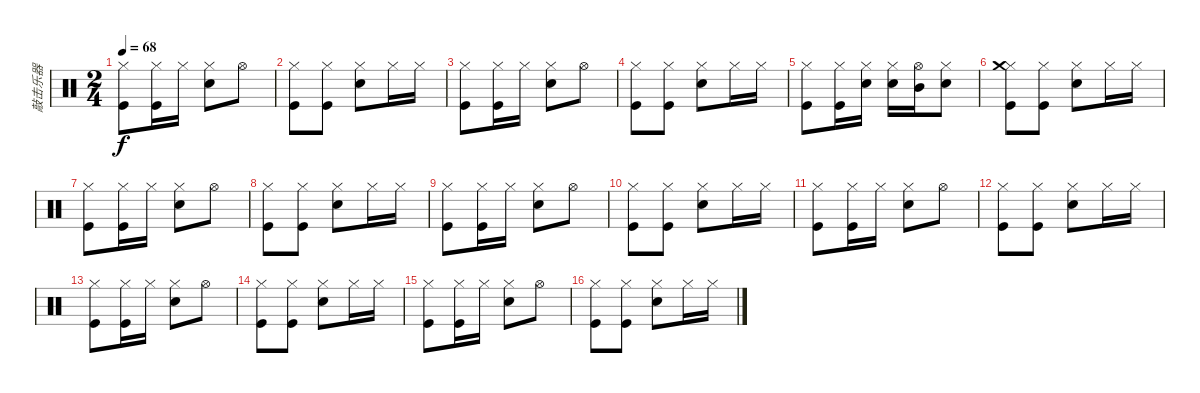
\track ("敲击乐器" "敲击乐器") {instrument percussion}
\staff {score}
\articulation defaults
\ts (2 4)
\tempo 68
\clef neutral
\ks c
("Hi-Hat (closed)" "Kick (hit)").8{dy f} ("Hi-Hat (closed)" "Kick (hit)").16 "Hi-Hat (closed)".16 ("Hi-Hat (closed)" "Snare (hit) 2").8 "Hi-Hat (open)".8 |
("Hi-Hat (closed)" "Kick (hit)").8 ("Hi-Hat (closed)" "Kick (hit)").8 ("Hi-Hat (closed)" "Snare (hit) 2").8 "Hi-Hat (closed)".16 "Hi-Hat (closed)".16 |
("Hi-Hat (closed)" "Kick (hit)").8 ("Hi-Hat (closed)" "Kick (hit)").16 "Hi-Hat (closed)".16 ("Hi-Hat (closed)" "Snare (hit) 2").8 "Hi-Hat (open)".8 |
("Hi-Hat (closed)" "Kick (hit)").8 ("Hi-Hat (closed)" "Kick (hit)").8 ("Hi-Hat (closed)" "Snare (hit) 2").8 "Hi-Hat (closed)".16 "Hi-Hat (closed)".16 |
("Hi-Hat (closed)" "Kick (hit)").8 ("Hi-Hat (closed)" "Kick (hit)").16 ("Hi-Hat (closed)" "Snare (hit) 2").16 ("Hi-Hat (closed)" "Snare (hit) 2").16 ("Hi-Hat (open)" "Mid Tom (hit)").16 ("Hi-Hat (closed)" "Snare (hit) 2").8 |
("Hi-Hat (closed)" "Crash medium (hit)" "Kick (hit)").8 ("Hi-Hat (closed)" "Kick (hit)").8 ("Hi-Hat (closed)" "Snare (hit) 2").8 "Hi-Hat (closed)".16 "Hi-Hat (closed)".16 |
("Hi-Hat (closed)" "Kick (hit)").8 ("Hi-Hat (closed)" "Kick (hit)").16 "Hi-Hat (closed)".16 ("Hi-Hat (closed)" "Snare (hit) 2").8 "Hi-Hat (open)".8 |
("Hi-Hat (closed)" "Kick (hit)").8 ("Hi-Hat (closed)" "Kick (hit)").8 ("Hi-Hat (closed)" "Snare (hit) 2").8 "Hi-Hat (closed)".16 "Hi-Hat (closed)".16 |
("Hi-Hat (closed)" "Kick (hit)").8 ("Hi-Hat (closed)" "Kick (hit)").16 "Hi-Hat (closed)".16 ("Hi-Hat (closed)" "Snare (hit) 2").8 "Hi-Hat (open)".8 |
("Hi-Hat (closed)" "Kick (hit)").8 ("Hi-Hat (closed)" "Kick (hit)").8 ("Hi-Hat (closed)" "Snare (hit) 2").8 "Hi-Hat (closed)".16 "Hi-Hat (closed)".16 |
("Hi-Hat (closed)" "Kick (hit)").8 ("Hi-Hat (closed)" "Kick (hit)").16 "Hi-Hat (closed)".16 ("Hi-Hat (closed)" "Snare (hit) 2").8 "Hi-Hat (open)".8 |
("Hi-Hat (closed)" "Kick (hit)").8 ("Hi-Hat (closed)" "Kick (hit)").8 ("Hi-Hat (closed)" "Snare (hit) 2").8 "Hi-Hat (closed)".16 "Hi-Hat (closed)".16 |
("Hi-Hat (closed)" "Kick (hit)").8 ("Hi-Hat (closed)" "Kick (hit)").16 "Hi-Hat (closed)".16 ("Hi-Hat (closed)" "Snare (hit) 2").8 "Hi-Hat (open)".8 |
("Hi-Hat (closed)" "Kick (hit)").8 ("Hi-Hat (closed)" "Kick (hit)").8 ("Hi-Hat (closed)" "Snare (hit) 2").8 "Hi-Hat (closed)".16 "Hi-Hat (closed)".16 |
("Hi-Hat (closed)" "Kick (hit)").8 ("Hi-Hat (closed)" "Kick (hit)").16 "Hi-Hat (closed)".16 ("Hi-Hat (closed)" "Snare (hit) 2").8 "Hi-Hat (open)".8 |
("Hi-Hat (closed)" "Kick (hit)").8 ("Hi-Hat (closed)" "Kick (hit)").8 ("Hi-Hat (closed)" "Snare (hit) 2").8 "Hi-Hat (closed)".16 "Hi-Hat (closed)".16
